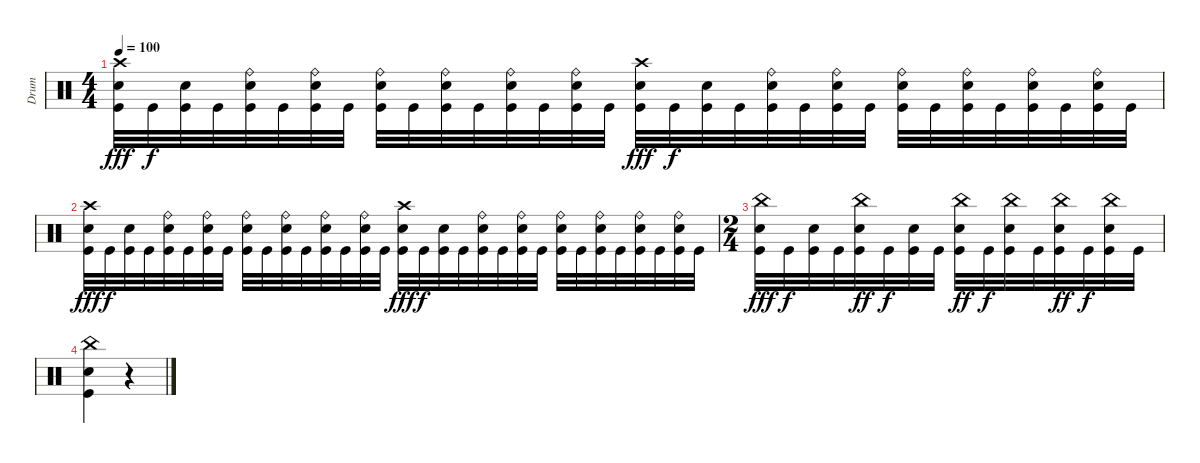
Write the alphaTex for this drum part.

\track ("Drum" "Drum") {instrument percussion}
\staff {score}
\articulation defaults
\ts (4 4)
\tempo 100
\clef neutral
\ks c
("Crash high (hit)" "Electric Snare (hit)" "Kick (hit)").32{dy fff} "Kick (hit)".32{dy f} ("Electric Snare (hit)" "Kick (hit)").32 "Kick (hit)".32 ("Ride (bell)" "Electric Snare (hit)" "Kick (hit)").32 "Kick (hit)".32 ("Ride (bell)" "Electric Snare (hit)" "Kick (hit)").32 "Kick (hit)".32 ("Ride (bell)" "Electric Snare (hit)" "Kick (hit)").32 "Kick (hit)".32 ("Ride (bell)" "Electric Snare (hit)" "Kick (hit)").32 "Kick (hit)".32 ("Ride (bell)" "Electric Snare (hit)" "Kick (hit)").32 "Kick (hit)".32 ("Ride (bell)" "Electric Snare (hit)" "Kick (hit)").32 "Kick (hit)".32 ("Crash high (hit)" "Electric Snare (hit)" "Kick (hit)").32{dy fff} "Kick (hit)".32{dy f} ("Electric Snare (hit)" "Kick (hit)").32 "Kick (hit)".32 ("Ride (bell)" "Electric Snare (hit)" "Kick (hit)").32 "Kick (hit)".32 ("Ride (bell)" "Electric Snare (hit)" "Kick (hit)").32 "Kick (hit)".32 ("Ride (bell)" "Electric Snare (hit)" "Kick (hit)").32 "Kick (hit)".32 ("Ride (bell)" "Electric Snare (hit)" "Kick (hit)").32 "Kick (hit)".32 ("Ride (bell)" "Electric Snare (hit)" "Kick (hit)").32 "Kick (hit)".32 ("Ride (bell)" "Electric Snare (hit)" "Kick (hit)").32 "Kick (hit)".32 |
("Crash high (hit)" "Electric Snare (hit)" "Kick (hit)").32{dy fff} "Kick (hit)".32{dy f} ("Electric Snare (hit)" "Kick (hit)").32 "Kick (hit)".32 ("Ride (bell)" "Electric Snare (hit)" "Kick (hit)").32 "Kick (hit)".32 ("Ride (bell)" "Electric Snare (hit)" "Kick (hit)").32 "Kick (hit)".32 ("Ride (bell)" "Electric Snare (hit)" "Kick (hit)").32 "Kick (hit)".32 ("Ride (bell)" "Electric Snare (hit)" "Kick (hit)").32 "Kick (hit)".32 ("Ride (bell)" "Electric Snare (hit)" "Kick (hit)").32 "Kick (hit)".32 ("Ride (bell)" "Electric Snare (hit)" "Kick (hit)").32 "Kick (hit)".32 ("Crash high (hit)" "Electric Snare (hit)" "Kick (hit)").32{dy fff} "Kick (hit)".32{dy f} ("Electric Snare (hit)" "Kick (hit)").32 "Kick (hit)".32 ("Ride (bell)" "Electric Snare (hit)" "Kick (hit)").32 "Kick (hit)".32 ("Ride (bell)" "Electric Snare (hit)" "Kick (hit)").32 "Kick (hit)".32 ("Ride (bell)" "Electric Snare (hit)" "Kick (hit)").32 "Kick (hit)".32 ("Ride (bell)" "Electric Snare (hit)" "Kick (hit)").32 "Kick (hit)".32 ("Ride (bell)" "Electric Snare (hit)" "Kick (hit)").32 "Kick (hit)".32 ("Ride (bell)" "Electric Snare (hit)" "Kick (hit)").32 "Kick (hit)".32 |
\ts (2 4)
("China (hit)" "Electric Snare (hit)" "Kick (hit)").32{dy fff} "Kick (hit)".32{dy f} ("Electric Snare (hit)" "Kick (hit)").32 "Kick (hit)".32 ("China (hit)" "Electric Snare (hit)" "Kick (hit)").32{dy ff} "Kick (hit)".32{dy f} ("Electric Snare (hit)" "Kick (hit)").32 "Kick (hit)".32 ("China (hit)" "Electric Snare (hit)" "Kick (hit)").32{dy ff} "Kick (hit)".32{dy f} ("China (hit)" "Electric Snare (hit)" "Kick (hit)").32 "Kick (hit)".32 ("China (hit)" "Electric Snare (hit)" "Kick (hit)").32{dy ff} "Kick (hit)".32{dy f} ("China (hit)" "Electric Snare (hit)" "Kick (hit)").32 "Kick (hit)".32 |
("China (hit)" "Electric Snare (hit)" "Kick (hit)").4 r.4
